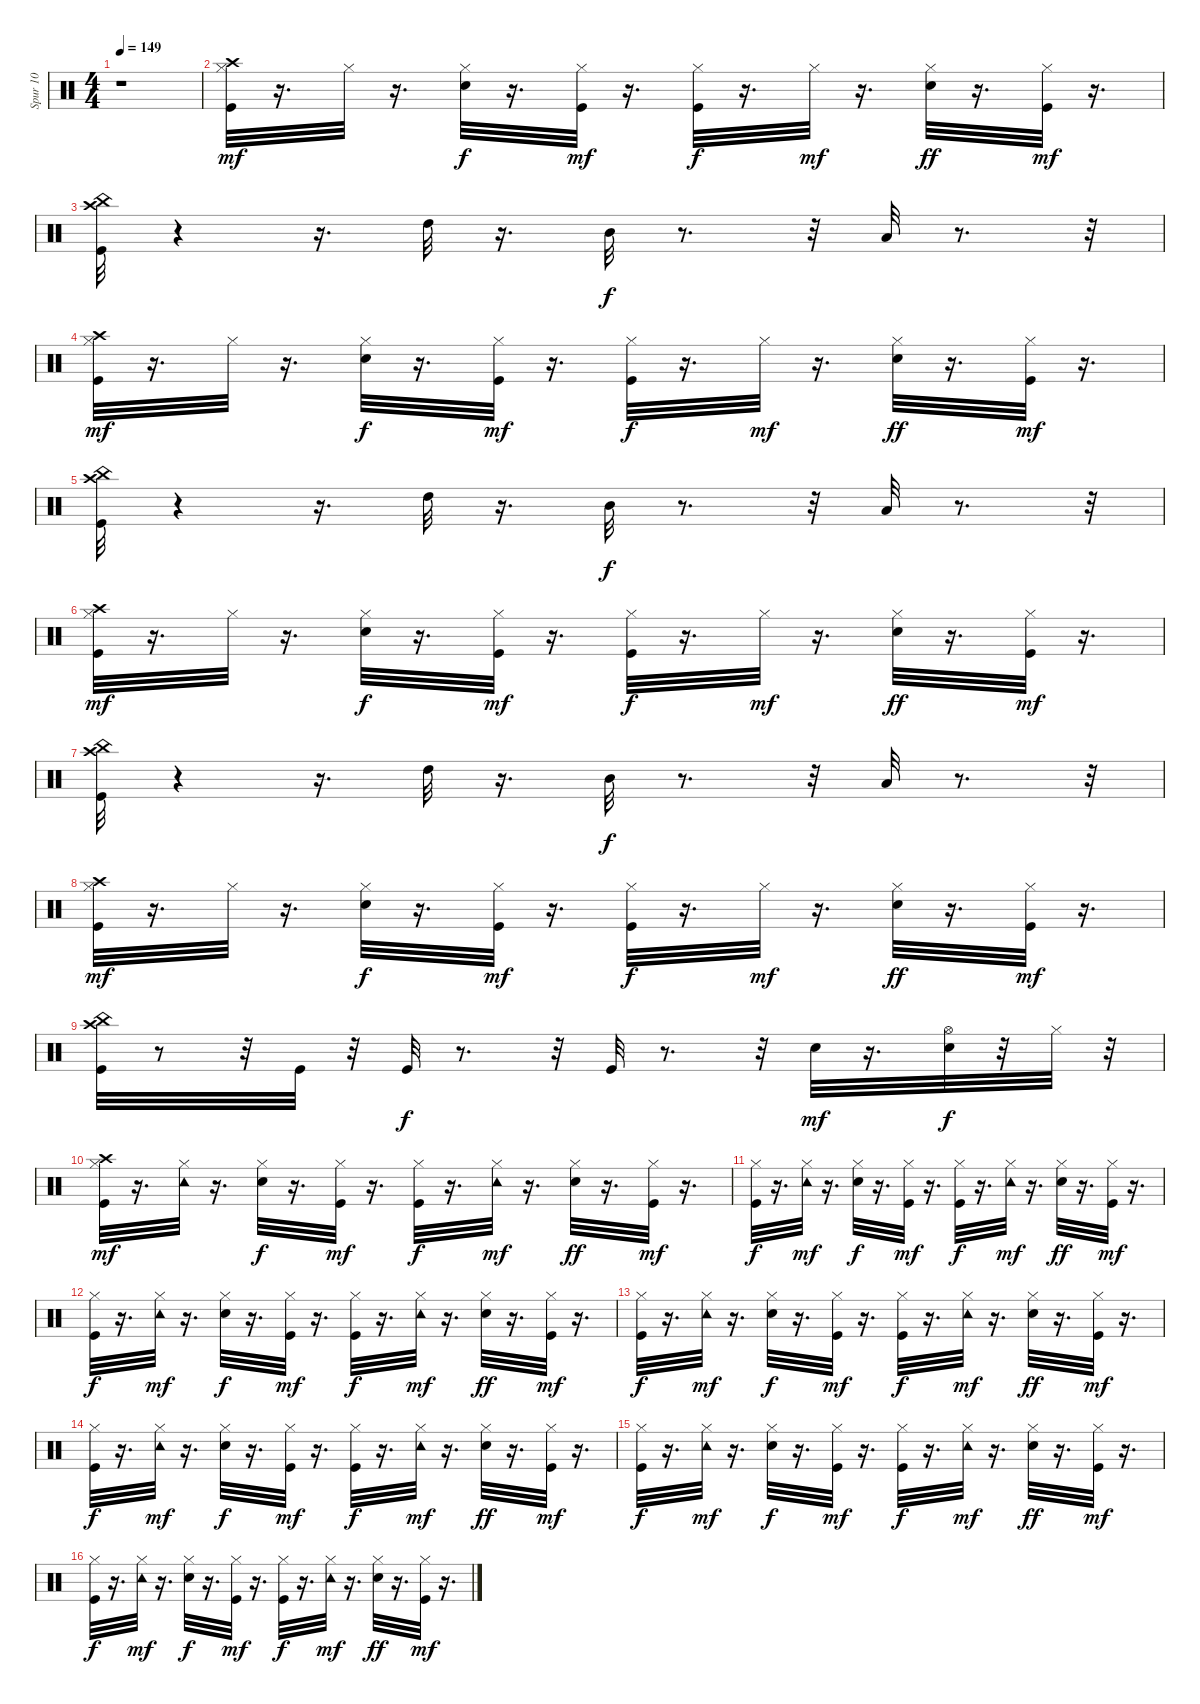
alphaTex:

\track ("Spur 10" "Spur 10") {instrument percussion}
\staff {score}
\articulation defaults
\ts (4 4)
\tempo 149
\clef neutral
\ks c
r.1{dy mf} |
("Kick (hit)" "Hi-Hat (closed)" "Crash high (hit)").32 r.16{d} "Hi-Hat (closed)".32 r.16{d} ("Snare (hit) 2" "Hi-Hat (closed)").32{dy f} r.16{d} ("Kick (hit)" "Hi-Hat (closed)").32{dy mf} r.16{d} ("Kick (hit)" "Hi-Hat (closed)").32{dy f} r.16{d} "Hi-Hat (closed)".32{dy mf} r.16{d} ("Snare (hit) 2" "Hi-Hat (closed)").32{dy ff} r.16{d} ("Kick (hit)" "Hi-Hat (closed)").32{dy mf} r.16{d} |
("Kick (hit)" "China (choke)" "Crash high (hit)").32 r.4 r.16{d} "High Tom (hit)".32 r.16{d} "Mid Tom (hit)".32{dy f} r.8{d} r.32 "Low Tom (hit)".32 r.8{d} r.32 |
("Kick (hit)" "Hi-Hat (closed)" "Crash high (hit)").32{dy mf} r.16{d} "Hi-Hat (closed)".32 r.16{d} ("Snare (hit) 2" "Hi-Hat (closed)").32{dy f} r.16{d} ("Kick (hit)" "Hi-Hat (closed)").32{dy mf} r.16{d} ("Kick (hit)" "Hi-Hat (closed)").32{dy f} r.16{d} "Hi-Hat (closed)".32{dy mf} r.16{d} ("Snare (hit) 2" "Hi-Hat (closed)").32{dy ff} r.16{d} ("Kick (hit)" "Hi-Hat (closed)").32{dy mf} r.16{d} |
("Kick (hit)" "China (choke)" "Crash high (hit)").32 r.4 r.16{d} "High Tom (hit)".32 r.16{d} "Mid Tom (hit)".32{dy f} r.8{d} r.32 "Low Tom (hit)".32 r.8{d} r.32 |
("Kick (hit)" "Hi-Hat (closed)" "Crash high (hit)").32{dy mf} r.16{d} "Hi-Hat (closed)".32 r.16{d} ("Snare (hit) 2" "Hi-Hat (closed)").32{dy f} r.16{d} ("Kick (hit)" "Hi-Hat (closed)").32{dy mf} r.16{d} ("Kick (hit)" "Hi-Hat (closed)").32{dy f} r.16{d} "Hi-Hat (closed)".32{dy mf} r.16{d} ("Snare (hit) 2" "Hi-Hat (closed)").32{dy ff} r.16{d} ("Kick (hit)" "Hi-Hat (closed)").32{dy mf} r.16{d} |
("Kick (hit)" "China (choke)" "Crash high (hit)").32 r.4 r.16{d} "High Tom (hit)".32 r.16{d} "Mid Tom (hit)".32{dy f} r.8{d} r.32 "Low Tom (hit)".32 r.8{d} r.32 |
("Kick (hit)" "Hi-Hat (closed)" "Crash high (hit)").32{dy mf} r.16{d} "Hi-Hat (closed)".32 r.16{d} ("Snare (hit) 2" "Hi-Hat (closed)").32{dy f} r.16{d} ("Kick (hit)" "Hi-Hat (closed)").32{dy mf} r.16{d} ("Kick (hit)" "Hi-Hat (closed)").32{dy f} r.16{d} "Hi-Hat (closed)".32{dy mf} r.16{d} ("Snare (hit) 2" "Hi-Hat (closed)").32{dy ff} r.16{d} ("Kick (hit)" "Hi-Hat (closed)").32{dy mf} r.16{d} |
("Kick (hit)" "China (choke)" "Crash high (hit)").32 r.8 r.32 "Kick (hit)".32 r.32 "Kick (hit)".32{dy f} r.8{d} r.32 "Kick (hit)".32 r.8{d} r.32 "Snare (hit) 2".32{dy mf} r.16{d} ("Snare (hit) 2" "Hi-Hat (open)").32{dy f} r.32 "Hi-Hat (closed)".32 r.32 |
("Kick (hit)" "Hi-Hat (closed)" "Crash high (hit)").32{dy mf} r.16{d} ("Hi-Hat (closed)" "Tambourine (hit)").32 r.16{d} ("Snare (hit) 2" "Hi-Hat (closed)").32{dy f} r.16{d} ("Kick (hit)" "Hi-Hat (closed)").32{dy mf} r.16{d} ("Kick (hit)" "Hi-Hat (closed)").32{dy f} r.16{d} ("Hi-Hat (closed)" "Tambourine (hit)").32{dy mf} r.16{d} ("Snare (hit) 2" "Hi-Hat (closed)").32{dy ff} r.16{d} ("Kick (hit)" "Hi-Hat (closed)").32{dy mf} r.16{d} |
("Kick (hit)" "Hi-Hat (closed)").32{dy f} r.16{d} ("Hi-Hat (closed)" "Tambourine (hit)").32{dy mf} r.16{d} ("Snare (hit) 2" "Hi-Hat (closed)").32{dy f} r.16{d} ("Kick (hit)" "Hi-Hat (closed)").32{dy mf} r.16{d} ("Kick (hit)" "Hi-Hat (closed)").32{dy f} r.16{d} ("Hi-Hat (closed)" "Tambourine (hit)").32{dy mf} r.16{d} ("Snare (hit) 2" "Hi-Hat (closed)").32{dy ff} r.16{d} ("Kick (hit)" "Hi-Hat (closed)").32{dy mf} r.16{d} |
("Kick (hit)" "Hi-Hat (closed)").32{dy f} r.16{d} ("Hi-Hat (closed)" "Tambourine (hit)").32{dy mf} r.16{d} ("Snare (hit) 2" "Hi-Hat (closed)").32{dy f} r.16{d} ("Kick (hit)" "Hi-Hat (closed)").32{dy mf} r.16{d} ("Kick (hit)" "Hi-Hat (closed)").32{dy f} r.16{d} ("Hi-Hat (closed)" "Tambourine (hit)").32{dy mf} r.16{d} ("Snare (hit) 2" "Hi-Hat (closed)").32{dy ff} r.16{d} ("Kick (hit)" "Hi-Hat (closed)").32{dy mf} r.16{d} |
("Kick (hit)" "Hi-Hat (closed)").32{dy f} r.16{d} ("Hi-Hat (closed)" "Tambourine (hit)").32{dy mf} r.16{d} ("Snare (hit) 2" "Hi-Hat (closed)").32{dy f} r.16{d} ("Kick (hit)" "Hi-Hat (closed)").32{dy mf} r.16{d} ("Kick (hit)" "Hi-Hat (closed)").32{dy f} r.16{d} ("Hi-Hat (closed)" "Tambourine (hit)").32{dy mf} r.16{d} ("Snare (hit) 2" "Hi-Hat (closed)").32{dy ff} r.16{d} ("Kick (hit)" "Hi-Hat (closed)").32{dy mf} r.16{d} |
("Kick (hit)" "Hi-Hat (closed)").32{dy f} r.16{d} ("Hi-Hat (closed)" "Tambourine (hit)").32{dy mf} r.16{d} ("Snare (hit) 2" "Hi-Hat (closed)").32{dy f} r.16{d} ("Kick (hit)" "Hi-Hat (closed)").32{dy mf} r.16{d} ("Kick (hit)" "Hi-Hat (closed)").32{dy f} r.16{d} ("Hi-Hat (closed)" "Tambourine (hit)").32{dy mf} r.16{d} ("Snare (hit) 2" "Hi-Hat (closed)").32{dy ff} r.16{d} ("Kick (hit)" "Hi-Hat (closed)").32{dy mf} r.16{d} |
("Kick (hit)" "Hi-Hat (closed)").32{dy f} r.16{d} ("Hi-Hat (closed)" "Tambourine (hit)").32{dy mf} r.16{d} ("Snare (hit) 2" "Hi-Hat (closed)").32{dy f} r.16{d} ("Kick (hit)" "Hi-Hat (closed)").32{dy mf} r.16{d} ("Kick (hit)" "Hi-Hat (closed)").32{dy f} r.16{d} ("Hi-Hat (closed)" "Tambourine (hit)").32{dy mf} r.16{d} ("Snare (hit) 2" "Hi-Hat (closed)").32{dy ff} r.16{d} ("Kick (hit)" "Hi-Hat (closed)").32{dy mf} r.16{d} |
("Kick (hit)" "Hi-Hat (closed)").32{dy f} r.16{d} ("Hi-Hat (closed)" "Tambourine (hit)").32{dy mf} r.16{d} ("Snare (hit) 2" "Hi-Hat (closed)").32{dy f} r.16{d} ("Kick (hit)" "Hi-Hat (closed)").32{dy mf} r.16{d} ("Kick (hit)" "Hi-Hat (closed)").32{dy f} r.16{d} ("Hi-Hat (closed)" "Tambourine (hit)").32{dy mf} r.16{d} ("Snare (hit) 2" "Hi-Hat (closed)").32{dy ff} r.16{d} ("Kick (hit)" "Hi-Hat (closed)").32{dy mf} r.16{d}
